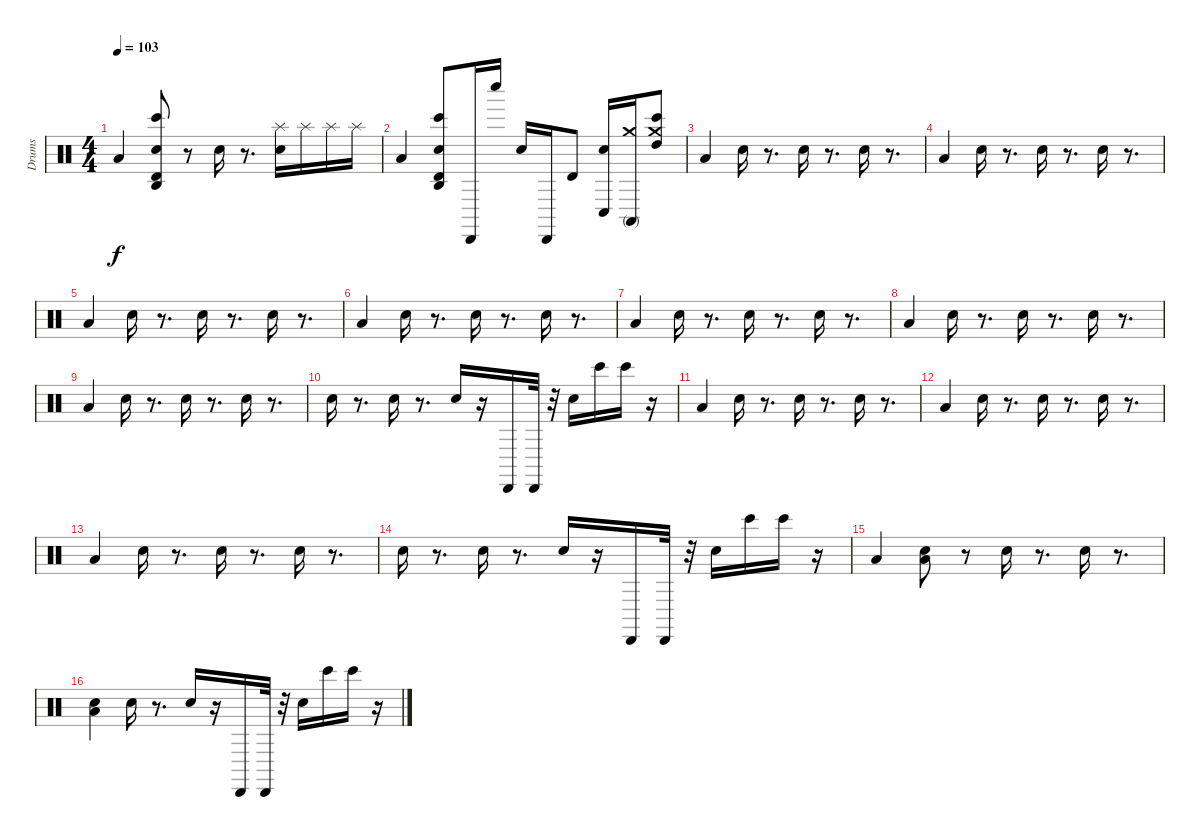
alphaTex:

\track ("Drums" "Drums") {instrument percussion}
\staff {score}
\articulation defaults
\ts (4 4)
\tempo 103
\clef neutral
\ks c "Low Tom (hit)".4{dy f}
("Agogo high (hit)" "Timbale high (hit)" "Bongo High (hit)" "Electric Snare (hit)").8 r.8 "Electric Snare (hit)".16 r.8{d} ("Splash (hit)" "Electric Snare (hit)").16 "Splash (hit)".16 "Splash (hit)".16 "Splash (hit)".16 |
"Low Tom (hit)".4 ("Agogo high (hit)" "Timbale high (hit)" "Bongo High (hit)" "Electric Snare (hit)").8 "Cabasa (hit)".16 "Whistle low (hit)".16 "Electric Snare (hit)".16 "Cabasa (hit)".16 "Timbale high (hit)".8 ("Conga low (hit)" "Electric Snare (hit)").16 ("Crash medium (hit)" "Conga high (mute)").16 ("High Tom (hit)" "Crash medium (hit)" "Bongo High (hit)").8 |
"Low Tom (hit)".4 "Electric Snare (hit)".16 r.8{d} "Electric Snare (hit)".16 r.8{d} "Electric Snare (hit)".16 r.8{d} |
"Low Tom (hit)".4 "Electric Snare (hit)".16 r.8{d} "Electric Snare (hit)".16 r.8{d} "Electric Snare (hit)".16 r.8{d} |
"Low Tom (hit)".4 "Electric Snare (hit)".16 r.8{d} "Electric Snare (hit)".16 r.8{d} "Electric Snare (hit)".16 r.8{d} |
"Low Tom (hit)".4 "Electric Snare (hit)".16 r.8{d} "Electric Snare (hit)".16 r.8{d} "Electric Snare (hit)".16 r.8{d} |
"Low Tom (hit)".4 "Electric Snare (hit)".16 r.8{d} "Electric Snare (hit)".16 r.8{d} "Electric Snare (hit)".16 r.8{d} |
"Low Tom (hit)".4 "Electric Snare (hit)".16 r.8{d} "Electric Snare (hit)".16 r.8{d} "Electric Snare (hit)".16 r.8{d} |
"Low Tom (hit)".4 "Electric Snare (hit)".16 r.8{d} "Electric Snare (hit)".16 r.8{d} "Electric Snare (hit)".16 r.8{d} |
"Electric Snare (hit)".16 r.8{d} "Electric Snare (hit)".16 r.8{d} "Electric Snare (hit)".16 r.16 "Cabasa (hit)".16 "Cabasa (hit)".32 r.32 "Electric Snare (hit)".16 "Bongo High (hit)".16 "Bongo High (hit)".16 r.16 |
"Low Tom (hit)".4 "Electric Snare (hit)".16 r.8{d} "Electric Snare (hit)".16 r.8{d} "Electric Snare (hit)".16 r.8{d} |
"Low Tom (hit)".4 "Electric Snare (hit)".16 r.8{d} "Electric Snare (hit)".16 r.8{d} "Electric Snare (hit)".16 r.8{d} |
"Low Tom (hit)".4 "Electric Snare (hit)".16 r.8{d} "Electric Snare (hit)".16 r.8{d} "Electric Snare (hit)".16 r.8{d} |
"Electric Snare (hit)".16 r.8{d} "Electric Snare (hit)".16 r.8{d} "Electric Snare (hit)".16 r.16 "Cabasa (hit)".16 "Cabasa (hit)".32 r.32 "Electric Snare (hit)".16 "Bongo High (hit)".16 "Bongo High (hit)".16 r.16 |
"Low Tom (hit)".4 ("Low Tom (hit)" "Electric Snare (hit)").8 r.8 "Electric Snare (hit)".16 r.8{d} "Electric Snare (hit)".16 r.8{d} |
("Low Tom (hit)" "Electric Snare (hit)").4 "Electric Snare (hit)".16 r.8{d} "Electric Snare (hit)".16 r.16 "Cabasa (hit)".16 "Cabasa (hit)".32 r.32 "Electric Snare (hit)".16 "Bongo High (hit)".16 "Bongo High (hit)".16 r.16
